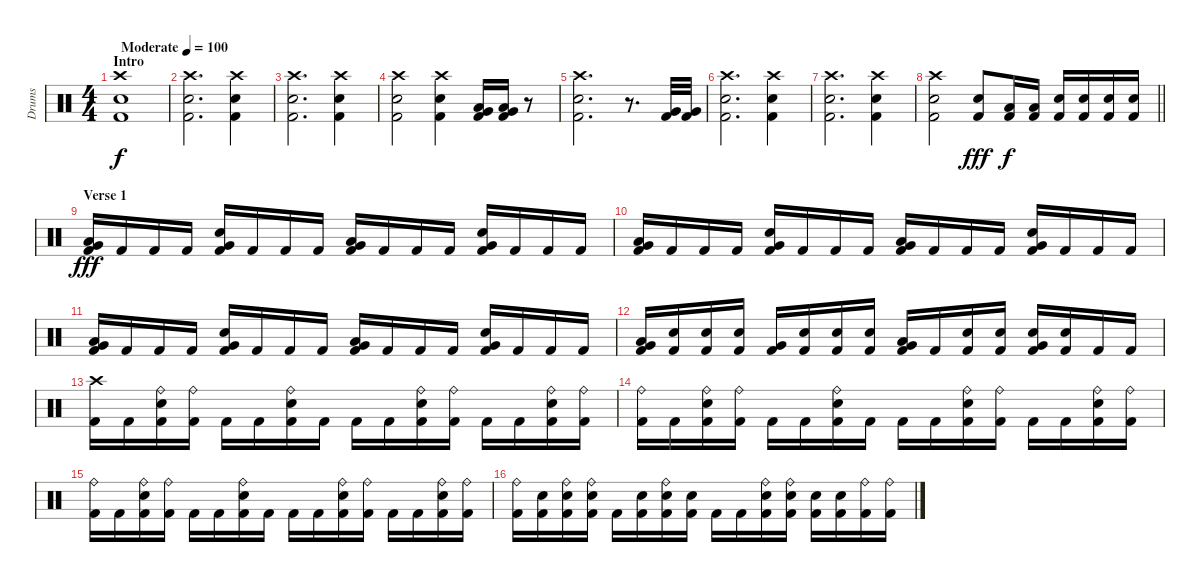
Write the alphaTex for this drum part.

\track ("Drums" "Drums") {instrument percussion}
\staff {score}
\articulation defaults
\ts (4 4)
\section ("" "Intro")
\tempo (100 "Moderate")
\clef neutral
\ks c
("Crash high (hit)" "Electric Snare (hit)" "Kick (hit) 2").1{dy f} |
("Crash high (hit)" "Electric Snare (hit)" "Kick (hit) 2").2{d} ("Crash high (hit)" "Electric Snare (hit)" "Kick (hit) 2").4 |
("Crash high (hit)" "Electric Snare (hit)" "Kick (hit) 2").2{d} ("Crash high (hit)" "Electric Snare (hit)" "Kick (hit) 2").4 |
("Crash high (hit)" "Electric Snare (hit)" "Kick (hit) 2").2 ("Crash high (hit)" "Electric Snare (hit)" "Kick (hit) 2").4 ("Low Tom (hit)" "Very Low Tom (hit)" "Kick (hit) 2").16 ("Low Tom (hit)" "Very Low Tom (hit)" "Kick (hit) 2").16 r.8 |
("Crash high (hit)" "Electric Snare (hit)" "Kick (hit) 2").2{d} r.8{d} ("Very Low Tom (hit)" "Kick (hit) 2").32 ("Very Low Tom (hit)" "Kick (hit) 2").32 |
("Crash high (hit)" "Electric Snare (hit)" "Kick (hit) 2").2{d} ("Crash high (hit)" "Electric Snare (hit)" "Kick (hit) 2").4 |
("Crash high (hit)" "Electric Snare (hit)" "Kick (hit) 2").2{d} ("Crash high (hit)" "Electric Snare (hit)" "Kick (hit) 2").4 |
\barLineRight lightlight
("Crash high (hit)" "Electric Snare (hit)" "Kick (hit) 2").2 ("Electric Snare (hit)" "Kick (hit) 2").8{dy fff} ("Low Tom (hit)" "Kick (hit) 2").16{dy f} ("Low Tom (hit)" "Kick (hit) 2").16 ("Electric Snare (hit)" "Kick (hit) 2").16 ("Electric Snare (hit)" "Kick (hit) 2").16 ("Electric Snare (hit)" "Kick (hit) 2").16 ("Electric Snare (hit)" "Kick (hit) 2").16 |
\section ("" "Verse 1")
("Very Low Tom (hit)" "Low Tom (hit)" "Kick (hit) 2").16{dy fff} "Kick (hit) 2".16 "Kick (hit) 2".16 "Kick (hit) 2".16 ("Very Low Tom (hit)" "Electric Snare (hit)" "Kick (hit) 2").16 "Kick (hit) 2".16 "Kick (hit) 2".16 "Kick (hit) 2".16 ("Very Low Tom (hit)" "Low Tom (hit)" "Kick (hit) 2").16 "Kick (hit) 2".16 "Kick (hit) 2".16 "Kick (hit) 2".16 ("Very Low Tom (hit)" "Electric Snare (hit)" "Kick (hit) 2").16 "Kick (hit) 2".16 "Kick (hit) 2".16 "Kick (hit) 2".16 |
("Very Low Tom (hit)" "Low Tom (hit)" "Kick (hit) 2").16 "Kick (hit) 2".16 "Kick (hit) 2".16 "Kick (hit) 2".16 ("Very Low Tom (hit)" "Electric Snare (hit)" "Kick (hit) 2").16 "Kick (hit) 2".16 "Kick (hit) 2".16 "Kick (hit) 2".16 ("Very Low Tom (hit)" "Low Tom (hit)" "Kick (hit) 2").16 "Kick (hit) 2".16 "Kick (hit) 2".16 "Kick (hit) 2".16 ("Very Low Tom (hit)" "Electric Snare (hit)" "Kick (hit) 2").16 "Kick (hit) 2".16 "Kick (hit) 2".16 "Kick (hit) 2".16 |
("Very Low Tom (hit)" "Low Tom (hit)" "Kick (hit) 2").16 "Kick (hit) 2".16 "Kick (hit) 2".16 "Kick (hit) 2".16 ("Very Low Tom (hit)" "Electric Snare (hit)" "Kick (hit) 2").16 "Kick (hit) 2".16 "Kick (hit) 2".16 "Kick (hit) 2".16 ("Very Low Tom (hit)" "Low Tom (hit)" "Kick (hit) 2").16 "Kick (hit) 2".16 "Kick (hit) 2".16 "Kick (hit) 2".16 ("Very Low Tom (hit)" "Electric Snare (hit)" "Kick (hit) 2").16 "Kick (hit) 2".16 "Kick (hit) 2".16 "Kick (hit) 2".16 |
("Very Low Tom (hit)" "Low Tom (hit)" "Kick (hit) 2").16 ("Electric Snare (hit)" "Kick (hit) 2").16 ("Electric Snare (hit)" "Kick (hit) 2").16 ("Electric Snare (hit)" "Kick (hit) 2").16 ("Very Low Tom (hit)" "Kick (hit) 2").16 ("Electric Snare (hit)" "Kick (hit) 2").16 ("Electric Snare (hit)" "Kick (hit) 2").16 ("Electric Snare (hit)" "Kick (hit) 2").16 ("Very Low Tom (hit)" "Low Tom (hit)" "Kick (hit) 2").16 "Kick (hit) 2".16 ("Electric Snare (hit)" "Kick (hit) 2").16 ("Electric Snare (hit)" "Kick (hit) 2").16 ("Very Low Tom (hit)" "Electric Snare (hit)" "Kick (hit) 2").16 ("Electric Snare (hit)" "Kick (hit) 2").16 "Kick (hit) 2".16 "Kick (hit) 2".16 |
("Crash high (hit)" "Kick (hit) 2").16 "Kick (hit) 2".16 ("Ride (bell)" "Electric Snare (hit)" "Kick (hit) 2").16 ("Ride (bell)" "Kick (hit) 2").16 "Kick (hit) 2".16 "Kick (hit) 2".16 ("Ride (bell)" "Electric Snare (hit)" "Kick (hit) 2").16 "Kick (hit) 2".16 "Kick (hit) 2".16 "Kick (hit) 2".16 ("Ride (bell)" "Electric Snare (hit)" "Kick (hit) 2").16 ("Ride (bell)" "Kick (hit) 2").16 "Kick (hit) 2".16 "Kick (hit) 2".16 ("Ride (bell)" "Electric Snare (hit)" "Kick (hit) 2").16 ("Ride (bell)" "Kick (hit) 2").16 |
("Ride (bell)" "Kick (hit) 2").16 "Kick (hit) 2".16 ("Ride (bell)" "Electric Snare (hit)" "Kick (hit) 2").16 ("Ride (bell)" "Kick (hit) 2").16 "Kick (hit) 2".16 "Kick (hit) 2".16 ("Ride (bell)" "Electric Snare (hit)" "Kick (hit) 2").16 "Kick (hit) 2".16 "Kick (hit) 2".16 "Kick (hit) 2".16 ("Ride (bell)" "Electric Snare (hit)" "Kick (hit) 2").16 ("Ride (bell)" "Kick (hit) 2").16 "Kick (hit) 2".16 "Kick (hit) 2".16 ("Ride (bell)" "Electric Snare (hit)" "Kick (hit) 2").16 ("Ride (bell)" "Kick (hit) 2").16 |
("Ride (bell)" "Kick (hit) 2").16 "Kick (hit) 2".16 ("Ride (bell)" "Electric Snare (hit)" "Kick (hit) 2").16 ("Ride (bell)" "Kick (hit) 2").16 "Kick (hit) 2".16 "Kick (hit) 2".16 ("Ride (bell)" "Electric Snare (hit)" "Kick (hit) 2").16 "Kick (hit) 2".16 "Kick (hit) 2".16 "Kick (hit) 2".16 ("Ride (bell)" "Electric Snare (hit)" "Kick (hit) 2").16 ("Ride (bell)" "Kick (hit) 2").16 "Kick (hit) 2".16 "Kick (hit) 2".16 ("Ride (bell)" "Electric Snare (hit)" "Kick (hit) 2").16 ("Ride (bell)" "Kick (hit) 2").16 |
("Ride (bell)" "Kick (hit) 2").16 ("Electric Snare (hit)" "Kick (hit) 2").16 ("Ride (bell)" "Electric Snare (hit)" "Kick (hit) 2").16 ("Ride (bell)" "Electric Snare (hit)" "Kick (hit) 2").16 "Kick (hit) 2".16 ("Electric Snare (hit)" "Kick (hit) 2").16 ("Ride (bell)" "Electric Snare (hit)" "Kick (hit) 2").16 ("Electric Snare (hit)" "Kick (hit) 2").16 "Kick (hit) 2".16 "Kick (hit) 2".16 ("Ride (bell)" "Electric Snare (hit)" "Kick (hit) 2").16 ("Ride (bell)" "Electric Snare (hit)" "Kick (hit) 2").16 ("Electric Snare (hit)" "Kick (hit) 2").16 ("Electric Snare (hit)" "Kick (hit) 2").16 ("Ride (bell)" "Kick (hit) 2").16 ("Ride (bell)" "Kick (hit) 2").16
